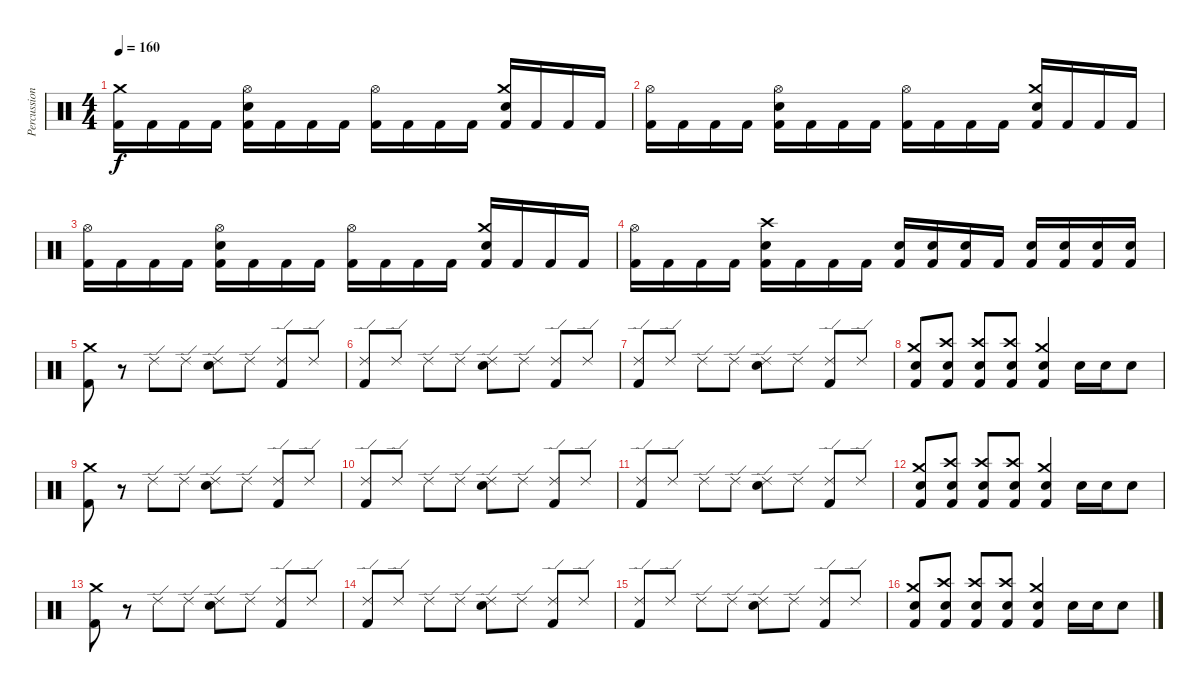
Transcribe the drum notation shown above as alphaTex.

\track ("Percussions" "Percussion") {instrument percussion}
\staff {score}
\articulation defaults
\ts (4 4)
\tempo 160
\clef neutral
\ks c
("Kick (hit) 2" "Crash medium (hit)").16{dy f} "Kick (hit) 2".16 "Kick (hit) 2".16 "Kick (hit) 2".16 ("Kick (hit) 2" "Electric Snare (hit)" "Hi-Hat (open)").16 "Kick (hit) 2".16 "Kick (hit) 2".16 "Kick (hit) 2".16 ("Kick (hit) 2" "Hi-Hat (open)").16 "Kick (hit) 2".16 "Kick (hit) 2".16 "Kick (hit) 2".16 ("Kick (hit) 2" "Electric Snare (hit)" "Crash medium (hit)").16 "Kick (hit) 2".16 "Kick (hit) 2".16 "Kick (hit) 2".16 |
("Kick (hit) 2" "Hi-Hat (open)").16 "Kick (hit) 2".16 "Kick (hit) 2".16 "Kick (hit) 2".16 ("Kick (hit) 2" "Electric Snare (hit)" "Hi-Hat (open)").16 "Kick (hit) 2".16 "Kick (hit) 2".16 "Kick (hit) 2".16 ("Kick (hit) 2" "Hi-Hat (open)").16 "Kick (hit) 2".16 "Kick (hit) 2".16 "Kick (hit) 2".16 ("Kick (hit) 2" "Electric Snare (hit)" "Crash medium (hit)").16 "Kick (hit) 2".16 "Kick (hit) 2".16 "Kick (hit) 2".16 |
("Kick (hit) 2" "Hi-Hat (open)").16 "Kick (hit) 2".16 "Kick (hit) 2".16 "Kick (hit) 2".16 ("Kick (hit) 2" "Electric Snare (hit)" "Hi-Hat (open)").16 "Kick (hit) 2".16 "Kick (hit) 2".16 "Kick (hit) 2".16 ("Kick (hit) 2" "Hi-Hat (open)").16 "Kick (hit) 2".16 "Kick (hit) 2".16 "Kick (hit) 2".16 ("Kick (hit) 2" "Electric Snare (hit)" "Crash medium (hit)").16 "Kick (hit) 2".16 "Kick (hit) 2".16 "Kick (hit) 2".16 |
("Kick (hit) 2" "Hi-Hat (open)").16 "Kick (hit) 2".16 "Kick (hit) 2".16 "Kick (hit) 2".16 ("Kick (hit) 2" "Electric Snare (hit)" "Crash high (hit)").16 "Kick (hit) 2".16 "Kick (hit) 2".16 "Kick (hit) 2".16 ("Kick (hit) 2" "Electric Snare (hit)").16 ("Kick (hit) 2" "Electric Snare (hit)").16 ("Kick (hit) 2" "Electric Snare (hit)").16 "Kick (hit) 2".16 ("Kick (hit) 2" "Snare (hit) 2").16 ("Kick (hit) 2" "Snare (hit) 2").16 ("Kick (hit) 2" "Snare (hit) 2").16 ("Kick (hit) 2" "Snare (hit) 2").16 |
("Crash medium (hit)" "Kick (hit) 2").8 r.8 "Ride (edge) 2".8 "Ride (edge) 2".8 ("Ride (edge) 2" "Electric Snare (hit)").8 "Ride (edge) 2".8 ("Ride (edge) 2" "Kick (hit) 2").8 "Ride (edge) 2".8 |
("Ride (edge) 2" "Kick (hit) 2").8 "Ride (edge) 2".8 "Ride (edge) 2".8 "Ride (edge) 2".8 ("Ride (edge) 2" "Electric Snare (hit)").8 "Ride (edge) 2".8 ("Ride (edge) 2" "Kick (hit) 2").8 "Ride (edge) 2".8 |
("Ride (edge) 2" "Kick (hit) 2").8 "Ride (edge) 2".8 "Ride (edge) 2".8 "Ride (edge) 2".8 ("Ride (edge) 2" "Electric Snare (hit)").8 "Ride (edge) 2".8 ("Ride (edge) 2" "Kick (hit) 2").8 "Ride (edge) 2".8 |
("Electric Snare (hit)" "Kick (hit) 2" "Crash medium (hit)").8 ("Snare (hit) 2" "Kick (hit) 2" "Crash high (hit)").8 ("Snare (hit) 2" "Kick (hit) 2" "Crash high (hit)").8 ("Snare (hit) 2" "Kick (hit) 2" "Crash high (hit)").8 ("Crash medium (hit)" "Electric Snare (hit)" "Kick (hit) 2").4 "Snare (hit) 2".16 "Snare (hit) 2".16 "Snare (hit) 2".8 |
("Crash medium (hit)" "Kick (hit) 2").8 r.8 "Ride (edge) 2".8 "Ride (edge) 2".8 ("Ride (edge) 2" "Electric Snare (hit)").8 "Ride (edge) 2".8 ("Ride (edge) 2" "Kick (hit) 2").8 "Ride (edge) 2".8 |
("Ride (edge) 2" "Kick (hit) 2").8 "Ride (edge) 2".8 "Ride (edge) 2".8 "Ride (edge) 2".8 ("Ride (edge) 2" "Electric Snare (hit)").8 "Ride (edge) 2".8 ("Ride (edge) 2" "Kick (hit) 2").8 "Ride (edge) 2".8 |
("Ride (edge) 2" "Kick (hit) 2").8 "Ride (edge) 2".8 "Ride (edge) 2".8 "Ride (edge) 2".8 ("Ride (edge) 2" "Electric Snare (hit)").8 "Ride (edge) 2".8 ("Ride (edge) 2" "Kick (hit) 2").8 "Ride (edge) 2".8 |
("Electric Snare (hit)" "Kick (hit) 2" "Crash medium (hit)").8 ("Snare (hit) 2" "Kick (hit) 2" "Crash high (hit)").8 ("Snare (hit) 2" "Kick (hit) 2" "Crash high (hit)").8 ("Snare (hit) 2" "Kick (hit) 2" "Crash high (hit)").8 ("Crash medium (hit)" "Electric Snare (hit)" "Kick (hit) 2").4 "Snare (hit) 2".16 "Snare (hit) 2".16 "Snare (hit) 2".8 |
("Crash medium (hit)" "Kick (hit) 2").8 r.8 "Ride (edge) 2".8 "Ride (edge) 2".8 ("Ride (edge) 2" "Electric Snare (hit)").8 "Ride (edge) 2".8 ("Ride (edge) 2" "Kick (hit) 2").8 "Ride (edge) 2".8 |
("Ride (edge) 2" "Kick (hit) 2").8 "Ride (edge) 2".8 "Ride (edge) 2".8 "Ride (edge) 2".8 ("Ride (edge) 2" "Electric Snare (hit)").8 "Ride (edge) 2".8 ("Ride (edge) 2" "Kick (hit) 2").8 "Ride (edge) 2".8 |
("Ride (edge) 2" "Kick (hit) 2").8 "Ride (edge) 2".8 "Ride (edge) 2".8 "Ride (edge) 2".8 ("Ride (edge) 2" "Electric Snare (hit)").8 "Ride (edge) 2".8 ("Ride (edge) 2" "Kick (hit) 2").8 "Ride (edge) 2".8 |
("Electric Snare (hit)" "Kick (hit) 2" "Crash medium (hit)").8 ("Snare (hit) 2" "Kick (hit) 2" "Crash high (hit)").8 ("Snare (hit) 2" "Kick (hit) 2" "Crash high (hit)").8 ("Snare (hit) 2" "Kick (hit) 2" "Crash high (hit)").8 ("Crash medium (hit)" "Electric Snare (hit)" "Kick (hit) 2").4 "Snare (hit) 2".16 "Snare (hit) 2".16 "Snare (hit) 2".8
